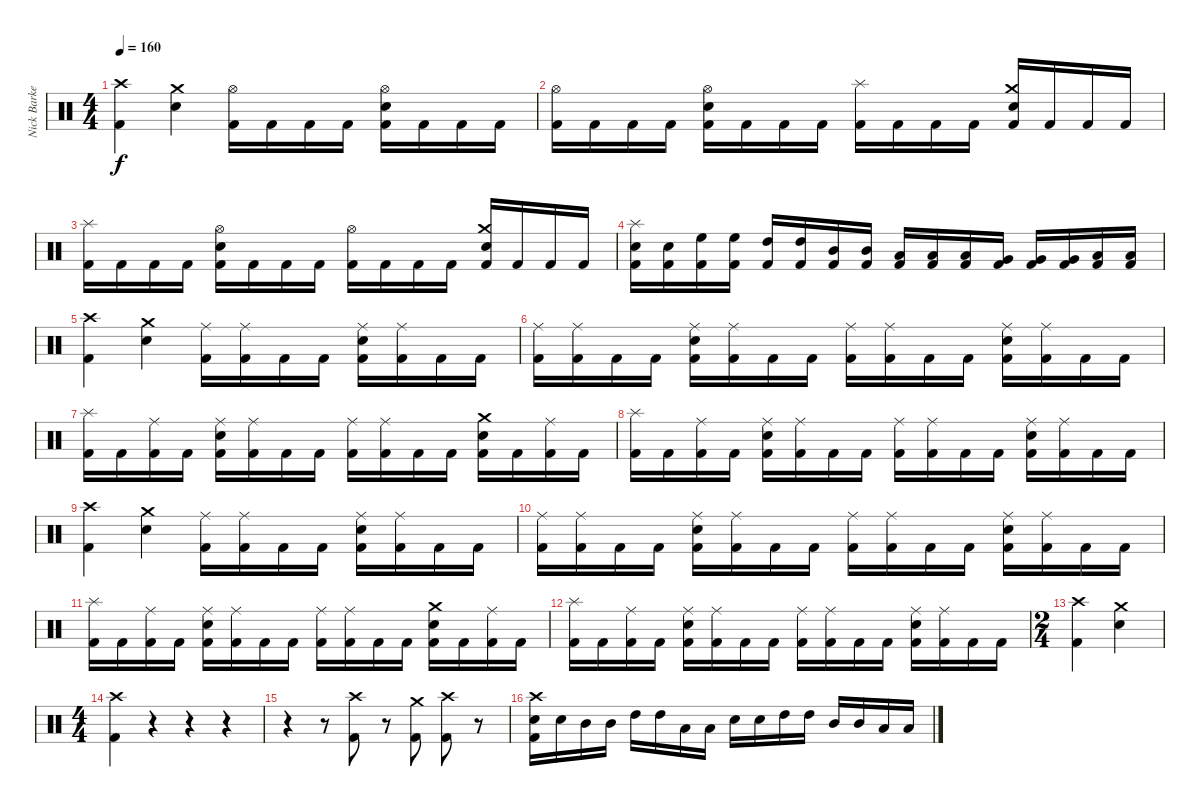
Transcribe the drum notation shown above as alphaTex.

\track ("Nick Barker" "Nick Barke") {instrument percussion}
\staff {score}
\articulation defaults
\ts (4 4)
\tempo 160
\clef neutral
\ks c
("Crash high (hit)" "Kick (hit) 2").4{dy f} ("Crash medium (hit)" "Electric Snare (hit)").4 ("Hi-Hat (open)" "Kick (hit) 2").16 "Kick (hit) 2".16 "Kick (hit) 2".16 "Kick (hit) 2".16 ("Hi-Hat (open)" "Electric Snare (hit)" "Kick (hit) 2").16 "Kick (hit) 2".16 "Kick (hit) 2".16 "Kick (hit) 2".16 |
("Hi-Hat (open)" "Kick (hit) 2").16 "Kick (hit) 2".16 "Kick (hit) 2".16 "Kick (hit) 2".16 ("Hi-Hat (open)" "Electric Snare (hit)" "Kick (hit) 2").16 "Kick (hit) 2".16 "Kick (hit) 2".16 "Kick (hit) 2".16 ("Splash (hit)" "Kick (hit) 2").16 "Kick (hit) 2".16 "Kick (hit) 2".16 "Kick (hit) 2".16 ("Crash medium (hit)" "Electric Snare (hit)" "Kick (hit) 2").16 "Kick (hit) 2".16 "Kick (hit) 2".16 "Kick (hit) 2".16 |
("Splash (hit)" "Kick (hit) 2").16 "Kick (hit) 2".16 "Kick (hit) 2".16 "Kick (hit) 2".16 ("Hi-Hat (open)" "Electric Snare (hit)" "Kick (hit) 2").16 "Kick (hit) 2".16 "Kick (hit) 2".16 "Kick (hit) 2".16 ("Hi-Hat (open)" "Kick (hit) 2").16 "Kick (hit) 2".16 "Kick (hit) 2".16 "Kick (hit) 2".16 ("Crash medium (hit)" "Electric Snare (hit)" "Kick (hit) 2").16 "Kick (hit) 2".16 "Kick (hit) 2".16 "Kick (hit) 2".16 |
("Splash (hit)" "Electric Snare (hit)" "Kick (hit) 2").16 ("Electric Snare (hit)" "Kick (hit) 2").16 ("High Floor Tom (hit)" "Kick (hit) 2").16 ("High Floor Tom (hit)" "Kick (hit) 2").16 ("High Tom (hit)" "Kick (hit) 2").16 ("High Tom (hit)" "Kick (hit) 2").16 ("Mid Tom (hit)" "Kick (hit) 2").16 ("Mid Tom (hit)" "Kick (hit) 2").16 ("Low Tom (hit)" "Kick (hit) 2").16 ("Low Tom (hit)" "Kick (hit) 2").16 ("Low Tom (hit)" "Kick (hit) 2").16 ("Very Low Tom (hit)" "Kick (hit) 2").16 ("Very Low Tom (hit)" "Kick (hit) 2").16 ("Very Low Tom (hit)" "Kick (hit) 2").16 ("Low Floor Tom (hit)" "Kick (hit) 2").16 ("Low Floor Tom (hit)" "Kick (hit) 2").16 |
("Crash high (hit)" "Kick (hit) 2").4 ("Crash medium (hit)" "Electric Snare (hit)").4 ("Ride (middle)" "Kick (hit) 2").16 ("Ride (middle)" "Kick (hit) 2").16 "Kick (hit) 2".16 "Kick (hit) 2".16 ("Ride (middle)" "Electric Snare (hit)" "Kick (hit) 2").16 ("Ride (middle)" "Kick (hit) 2").16 "Kick (hit) 2".16 "Kick (hit) 2".16 |
("Ride (middle)" "Kick (hit) 2").16 ("Ride (middle)" "Kick (hit) 2").16 "Kick (hit) 2".16 "Kick (hit) 2".16 ("Ride (middle)" "Electric Snare (hit)" "Kick (hit) 2").16 ("Ride (middle)" "Kick (hit) 2").16 "Kick (hit) 2".16 "Kick (hit) 2".16 ("Ride (middle)" "Kick (hit) 2").16 ("Ride (middle)" "Kick (hit) 2").16 "Kick (hit) 2".16 "Kick (hit) 2".16 ("Ride (middle)" "Electric Snare (hit)" "Kick (hit) 2").16 ("Ride (middle)" "Kick (hit) 2").16 "Kick (hit) 2".16 "Kick (hit) 2".16 |
("Splash (hit)" "Kick (hit) 2").16 "Kick (hit) 2".16 ("Ride (middle)" "Kick (hit) 2").16 "Kick (hit) 2".16 ("Ride (middle)" "Electric Snare (hit)" "Kick (hit) 2").16 ("Ride (middle)" "Kick (hit) 2").16 "Kick (hit) 2".16 "Kick (hit) 2".16 ("Ride (middle)" "Kick (hit) 2").16 ("Ride (middle)" "Kick (hit) 2").16 "Kick (hit) 2".16 "Kick (hit) 2".16 ("Crash medium (hit)" "Electric Snare (hit)" "Kick (hit) 2").16 "Kick (hit) 2".16 ("Ride (middle)" "Kick (hit) 2").16 "Kick (hit) 2".16 |
("Splash (hit)" "Kick (hit) 2").16 "Kick (hit) 2".16 ("Ride (middle)" "Kick (hit) 2").16 "Kick (hit) 2".16 ("Ride (middle)" "Electric Snare (hit)" "Kick (hit) 2").16 ("Ride (middle)" "Kick (hit) 2").16 "Kick (hit) 2".16 "Kick (hit) 2".16 ("Ride (middle)" "Kick (hit) 2").16 ("Ride (middle)" "Kick (hit) 2").16 "Kick (hit) 2".16 "Kick (hit) 2".16 ("Ride (middle)" "Electric Snare (hit)" "Kick (hit) 2").16 ("Ride (middle)" "Kick (hit) 2").16 "Kick (hit) 2".16 "Kick (hit) 2".16 |
("Crash high (hit)" "Kick (hit) 2").4 ("Crash medium (hit)" "Electric Snare (hit)").4 ("Ride (middle)" "Kick (hit) 2").16 ("Ride (middle)" "Kick (hit) 2").16 "Kick (hit) 2".16 "Kick (hit) 2".16 ("Ride (middle)" "Electric Snare (hit)" "Kick (hit) 2").16 ("Ride (middle)" "Kick (hit) 2").16 "Kick (hit) 2".16 "Kick (hit) 2".16 |
("Ride (middle)" "Kick (hit) 2").16 ("Ride (middle)" "Kick (hit) 2").16 "Kick (hit) 2".16 "Kick (hit) 2".16 ("Ride (middle)" "Electric Snare (hit)" "Kick (hit) 2").16 ("Ride (middle)" "Kick (hit) 2").16 "Kick (hit) 2".16 "Kick (hit) 2".16 ("Ride (middle)" "Kick (hit) 2").16 ("Ride (middle)" "Kick (hit) 2").16 "Kick (hit) 2".16 "Kick (hit) 2".16 ("Ride (middle)" "Electric Snare (hit)" "Kick (hit) 2").16 ("Ride (middle)" "Kick (hit) 2").16 "Kick (hit) 2".16 "Kick (hit) 2".16 |
("Splash (hit)" "Kick (hit) 2").16 "Kick (hit) 2".16 ("Ride (middle)" "Kick (hit) 2").16 "Kick (hit) 2".16 ("Ride (middle)" "Electric Snare (hit)" "Kick (hit) 2").16 ("Ride (middle)" "Kick (hit) 2").16 "Kick (hit) 2".16 "Kick (hit) 2".16 ("Ride (middle)" "Kick (hit) 2").16 ("Ride (middle)" "Kick (hit) 2").16 "Kick (hit) 2".16 "Kick (hit) 2".16 ("Crash medium (hit)" "Electric Snare (hit)" "Kick (hit) 2").16 "Kick (hit) 2".16 ("Ride (middle)" "Kick (hit) 2").16 "Kick (hit) 2".16 |
("Splash (hit)" "Kick (hit) 2").16 "Kick (hit) 2".16 ("Ride (middle)" "Kick (hit) 2").16 "Kick (hit) 2".16 ("Ride (middle)" "Electric Snare (hit)" "Kick (hit) 2").16 ("Ride (middle)" "Kick (hit) 2").16 "Kick (hit) 2".16 "Kick (hit) 2".16 ("Ride (middle)" "Kick (hit) 2").16 ("Ride (middle)" "Kick (hit) 2").16 "Kick (hit) 2".16 "Kick (hit) 2".16 ("Ride (middle)" "Electric Snare (hit)" "Kick (hit) 2").16 ("Ride (middle)" "Kick (hit) 2").16 "Kick (hit) 2".16 "Kick (hit) 2".16 |
\ts (2 4)
("Crash high (hit)" "Kick (hit) 2").4 ("Crash medium (hit)" "Electric Snare (hit)").4 |
\ts (4 4)
("Crash high (hit)" "Kick (hit) 2").4 r.4{volume 0} r.4 r.4 |
r.4{volume 16} r.8 ("Crash high (hit)" "Kick (hit) 2").8 r.8 ("Crash medium (hit)" "Kick (hit) 2").8 ("Crash high (hit)" "Kick (hit) 2").8 r.8 |
("Crash high (hit)" "Electric Snare (hit)" "Kick (hit) 2").16 "Electric Snare (hit)".16 "Mid Tom (hit)".16 "Mid Tom (hit)".16 "High Tom (hit)".16 "High Tom (hit)".16 "Low Tom (hit)".16 "Low Tom (hit)".16 "Electric Snare (hit)".16 "Electric Snare (hit)".16 "High Tom (hit)".16 "High Tom (hit)".16 "Mid Tom (hit)".16 "Mid Tom (hit)".16 "Low Tom (hit)".16 "Low Tom (hit)".16
